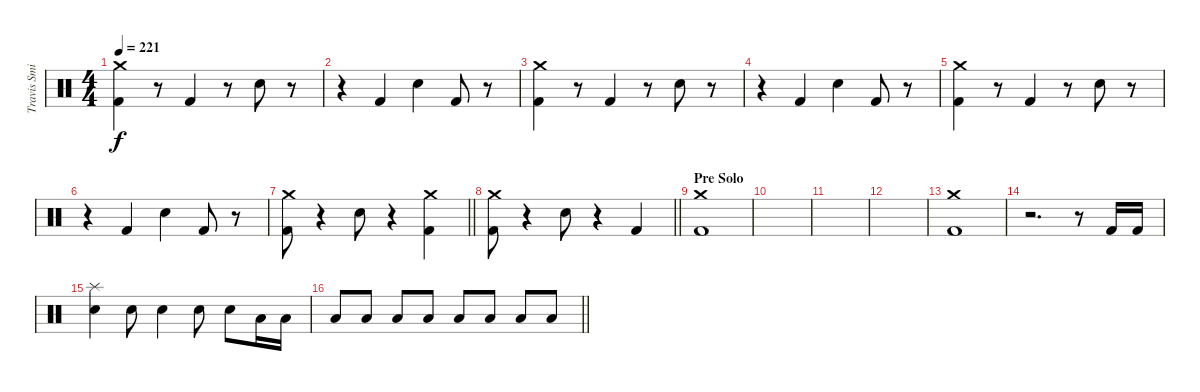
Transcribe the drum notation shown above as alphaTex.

\track ("Travis Smith" "Travis Smi") {instrument percussion}
\staff {score}
\articulation defaults
\ts (4 4)
\tempo 221
\clef neutral
\ks c
("Crash medium (hit)" "Kick (hit) 2").4{dy f} r.8 "Kick (hit) 2".4 r.8 "Electric Snare (hit)".8 r.8 |
r.4 "Kick (hit) 2".4 "Electric Snare (hit)".4 "Kick (hit) 2".8 r.8 |
("Crash medium (hit)" "Kick (hit) 2").4 r.8 "Kick (hit) 2".4 r.8 "Electric Snare (hit)".8 r.8 |
r.4 "Kick (hit) 2".4 "Electric Snare (hit)".4 "Kick (hit) 2".8 r.8 |
("Crash medium (hit)" "Kick (hit) 2").4 r.8 "Kick (hit) 2".4 r.8 "Electric Snare (hit)".8 r.8 |
r.4 "Kick (hit) 2".4 "Electric Snare (hit)".4 "Kick (hit) 2".8 r.8 |
\barLineRight lightlight
("Crash medium (hit)" "Kick (hit) 2").8 r.4 "Electric Snare (hit)".8 r.4 ("Crash medium (hit)" "Kick (hit) 2").4 |
\barLineRight lightlight
("Crash medium (hit)" "Kick (hit) 2").8 r.4 "Electric Snare (hit)".8 r.4 "Kick (hit) 2".4 |
\section ("" "Pre Solo")
("Crash medium (hit)" "Kick (hit) 2").1 |
|
|
|
("Crash medium (hit)" "Kick (hit) 2").1 |
r.2{d} r.8 "Kick (hit) 2".16 "Kick (hit) 2".16 |
("Splash (hit)" "Electric Snare (hit)").4 "Electric Snare (hit)".8 "Electric Snare (hit)".4 "Electric Snare (hit)".8 "Electric Snare (hit)".8 "Low Floor Tom (hit)".16 "Low Floor Tom (hit)".16 |
\barLineRight lightlight "Low Tom (hit)".8 "Low Tom (hit)".8 "Low Tom (hit)".8 "Low Tom (hit)".8 "Low Tom (hit)".8 "Low Tom (hit)".8 "Low Tom (hit)".8 "Low Tom (hit)".8
